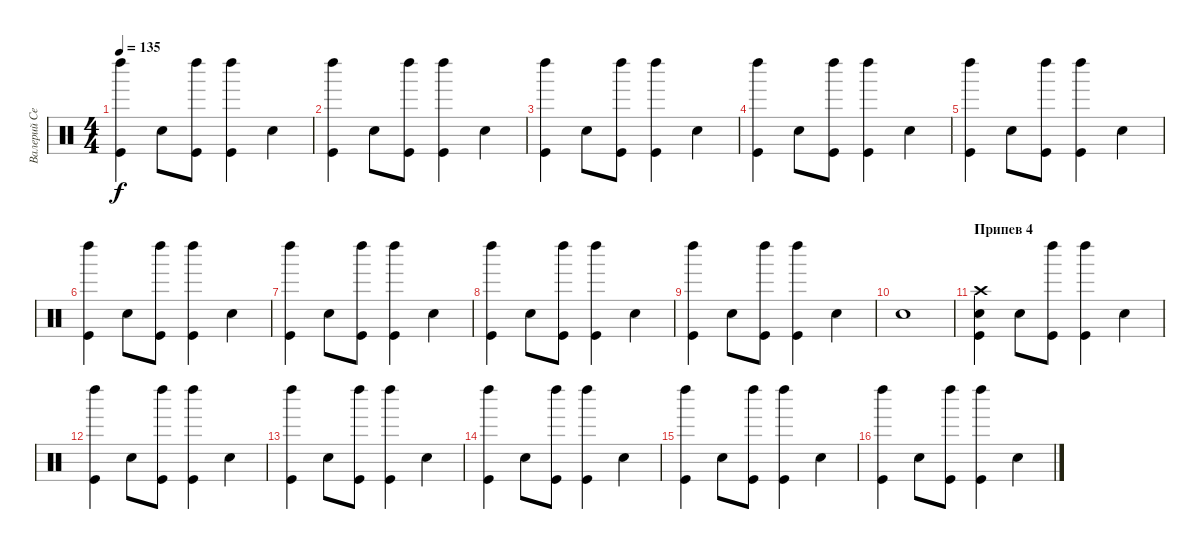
\track ("Валерий Северин" "Валерий Се") {instrument percussion}
\staff {score}
\articulation defaults
\ts (4 4)
\tempo 135
\clef neutral
\ks c
("Kick (hit)" "Left Maraca (hit)").4{dy f} "Snare (hit) 2".8 ("Kick (hit)" "Left Maraca (hit)").8 ("Kick (hit)" "Left Maraca (hit)").4 "Snare (hit) 2".4 |
("Kick (hit)" "Left Maraca (hit)").4 "Snare (hit) 2".8 ("Kick (hit)" "Left Maraca (hit)").8 ("Kick (hit)" "Left Maraca (hit)").4 "Snare (hit) 2".4 |
("Kick (hit)" "Left Maraca (hit)").4 "Snare (hit) 2".8 ("Kick (hit)" "Left Maraca (hit)").8 ("Kick (hit)" "Left Maraca (hit)").4 "Snare (hit) 2".4 |
("Kick (hit)" "Left Maraca (hit)").4 "Snare (hit) 2".8 ("Kick (hit)" "Left Maraca (hit)").8 ("Kick (hit)" "Left Maraca (hit)").4 "Snare (hit) 2".4 |
("Kick (hit)" "Left Maraca (hit)").4 "Snare (hit) 2".8 ("Kick (hit)" "Left Maraca (hit)").8 ("Kick (hit)" "Left Maraca (hit)").4 "Snare (hit) 2".4 |
("Kick (hit)" "Left Maraca (hit)").4 "Snare (hit) 2".8 ("Kick (hit)" "Left Maraca (hit)").8 ("Kick (hit)" "Left Maraca (hit)").4 "Snare (hit) 2".4 |
("Kick (hit)" "Left Maraca (hit)").4 "Snare (hit) 2".8 ("Kick (hit)" "Left Maraca (hit)").8 ("Kick (hit)" "Left Maraca (hit)").4 "Snare (hit) 2".4 |
("Kick (hit)" "Left Maraca (hit)").4 "Snare (hit) 2".8 ("Kick (hit)" "Left Maraca (hit)").8 ("Kick (hit)" "Left Maraca (hit)").4 "Snare (hit) 2".4 |
("Kick (hit)" "Left Maraca (hit)").4 "Snare (hit) 2".8 ("Kick (hit)" "Left Maraca (hit)").8 ("Kick (hit)" "Left Maraca (hit)").4 "Snare (hit) 2".4 |
"Snare (hit) 2".1 |
\section ("" "Припев 4")
("Crash high (hit)" "Kick (hit)" "Snare (hit) 2").4 "Snare (hit) 2".8 ("Kick (hit)" "Left Maraca (hit)").8 ("Kick (hit)" "Left Maraca (hit)").4 "Snare (hit) 2".4 |
("Kick (hit)" "Left Maraca (hit)").4 "Snare (hit) 2".8 ("Kick (hit)" "Left Maraca (hit)").8 ("Kick (hit)" "Left Maraca (hit)").4 "Snare (hit) 2".4 |
("Kick (hit)" "Left Maraca (hit)").4 "Snare (hit) 2".8 ("Kick (hit)" "Left Maraca (hit)").8 ("Kick (hit)" "Left Maraca (hit)").4 "Snare (hit) 2".4 |
("Kick (hit)" "Left Maraca (hit)").4 "Snare (hit) 2".8 ("Kick (hit)" "Left Maraca (hit)").8 ("Kick (hit)" "Left Maraca (hit)").4 "Snare (hit) 2".4 |
("Kick (hit)" "Left Maraca (hit)").4 "Snare (hit) 2".8 ("Kick (hit)" "Left Maraca (hit)").8 ("Kick (hit)" "Left Maraca (hit)").4 "Snare (hit) 2".4 |
("Kick (hit)" "Left Maraca (hit)").4 "Snare (hit) 2".8 ("Kick (hit)" "Left Maraca (hit)").8 ("Kick (hit)" "Left Maraca (hit)").4 "Snare (hit) 2".4
